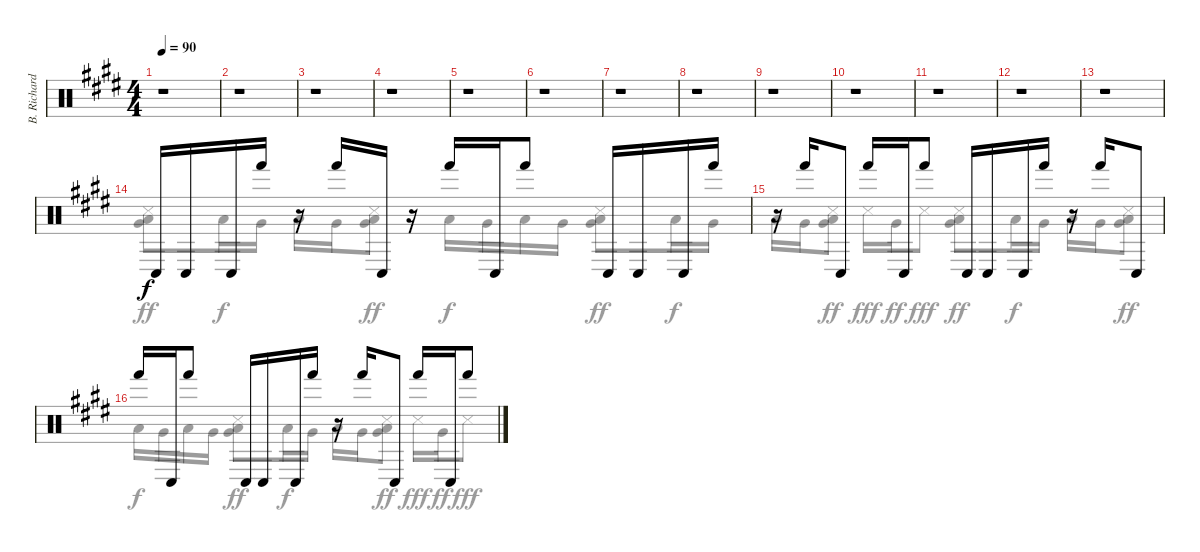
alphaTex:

\track ("B. Richardson Percussion" "B. Richard") {instrument percussion}
\staff {score}
\articulation defaults
\voice
\ts (4 4)
\tempo 90
\clef neutral
\ks c#minor
r.1{dy f} |
r.1 |
r.1 |
r.1 |
r.1 |
r.1 |
r.1 |
r.1 |
r.1 |
r.1 |
r.1 |
r.1 |
r.1 |
"Conga low (hit)".16 "Conga low (hit)".16 "Conga low (hit)".16 "Hand (hit)".16 r.16 "Hand (hit)".16 "Conga low (hit)".16 r.16 "Hand (hit)".16 "Conga low (hit)".16 "Hand (hit)".8 "Conga low (hit)".16 "Conga low (hit)".16 "Conga low (hit)".16 "Hand (hit)".16 |
r.16 "Hand (hit)".16 "Conga low (hit)".8 "Hand (hit)".16 "Conga low (hit)".16 "Hand (hit)".8 "Conga low (hit)".16 "Conga low (hit)".16 "Conga low (hit)".16 "Hand (hit)".16 r.16 "Hand (hit)".16 "Conga low (hit)".8 |
"Hand (hit)".16 "Conga low (hit)".16 "Hand (hit)".8 "Conga low (hit)".16 "Conga low (hit)".16 "Conga low (hit)".16 "Hand (hit)".16 r.16 "Hand (hit)".16 "Conga low (hit)".8 "Hand (hit)".16 "Conga low (hit)".16 "Hand (hit)".8
\voice
\clef neutral
\ottava regular
\simile none
\ks c#minor
r.1{dy f} |
r.1 |
r.1 |
r.1 |
r.1 |
r.1 |
r.1 |
r.1 |
r.1 |
r.1 |
r.1 |
r.1 |
r.1 |
("Snare (side stick) 3" "Very Low Tom (hit)" "Low Floor Tom (hit)").8{dy ff} "Low Floor Tom (hit)".16{dy f} "Very Low Tom (hit)".16 "Low Floor Tom (hit)".16 "Very Low Tom (hit)".16 ("Snare (side stick) 3" "Very Low Tom (hit)" "Low Floor Tom (hit)").8{dy ff} "Low Floor Tom (hit)".16{dy f} "Very Low Tom (hit)".16 "Low Floor Tom (hit)".16 "Very Low Tom (hit)".16 ("Snare (side stick) 3" "Very Low Tom (hit)" "Low Floor Tom (hit)").8{dy ff} "Low Floor Tom (hit)".16{dy f} "Very Low Tom (hit)".16 |
"Low Floor Tom (hit)".16 "Very Low Tom (hit)".16 ("Snare (side stick) 3" "Very Low Tom (hit)" "Low Floor Tom (hit)").8{dy ff} "Snare (side stick) 3".16{dy fff} "Very Low Tom (hit)".16{dy ff} "Snare (side stick) 3".8{dy fff} ("Snare (side stick) 3" "Very Low Tom (hit)" "Low Floor Tom (hit)").8{dy ff} "Low Floor Tom (hit)".16{dy f} "Very Low Tom (hit)".16 "Low Floor Tom (hit)".16 "Very Low Tom (hit)".16 ("Snare (side stick) 3" "Very Low Tom (hit)" "Low Floor Tom (hit)").8{dy ff} |
"Low Floor Tom (hit)".16{dy f} "Very Low Tom (hit)".16 "Low Floor Tom (hit)".16 "Very Low Tom (hit)".16 ("Snare (side stick) 3" "Very Low Tom (hit)" "Low Floor Tom (hit)").8{dy ff} "Low Floor Tom (hit)".16{dy f} "Very Low Tom (hit)".16 "Low Floor Tom (hit)".16 "Very Low Tom (hit)".16 ("Snare (side stick) 3" "Very Low Tom (hit)" "Low Floor Tom (hit)").8{dy ff} "Snare (side stick) 3".16{dy fff} "Very Low Tom (hit)".16{dy ff} "Snare (side stick) 3".8{dy fff}
